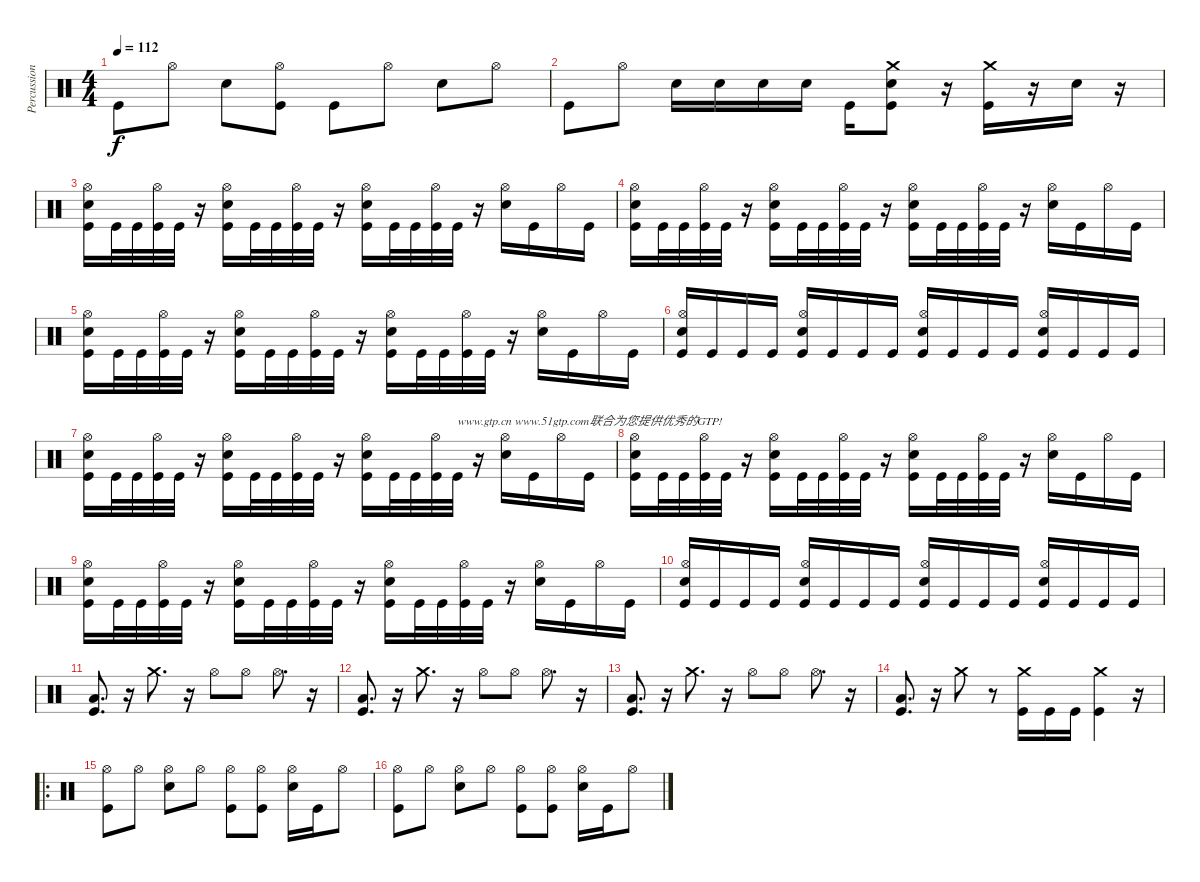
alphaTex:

\track ("Percussion" "Percussion") {instrument percussion}
\staff {score}
\articulation defaults
\ts (4 4)
\tempo 112
\clef neutral
\ks c "Kick (hit)".8{dy f} "Hi-Hat (open)".8 "Electric Snare (hit)".8
("Hi-Hat (open)" "Kick (hit)").8 "Kick (hit)".8 "Hi-Hat (open)".8 "Electric Snare (hit)".8 "Hi-Hat (open)".8 |
"Kick (hit)".8 "Hi-Hat (open)".8 "Electric Snare (hit)".16 "Electric Snare (hit)".16 "Electric Snare (hit)".16 "Electric Snare (hit)".16 "Kick (hit)".16 ("Electric Snare (hit)" "Kick (hit)" "Crash medium (hit)").8 r.16 ("Kick (hit)" "Crash medium (hit)").16 r.16 "Electric Snare (hit)".16 r.16 |
("Hi-Hat (open)" "Electric Snare (hit)" "Kick (hit)").16 "Kick (hit)".32 "Kick (hit)".32 ("Hi-Hat (open)" "Kick (hit)").32 "Kick (hit)".32 r.16 ("Hi-Hat (open)" "Electric Snare (hit)" "Kick (hit)").16 "Kick (hit)".32 "Kick (hit)".32 ("Hi-Hat (open)" "Kick (hit)").32 "Kick (hit)".32 r.16 ("Hi-Hat (open)" "Electric Snare (hit)" "Kick (hit)").16 "Kick (hit)".32 "Kick (hit)".32 ("Hi-Hat (open)" "Kick (hit)").32 "Kick (hit)".32 r.16 ("Hi-Hat (open)" "Electric Snare (hit)").16 "Kick (hit)".16 "Hi-Hat (open)".16 "Kick (hit)".16 |
("Hi-Hat (open)" "Electric Snare (hit)" "Kick (hit)").16 "Kick (hit)".32 "Kick (hit)".32 ("Hi-Hat (open)" "Kick (hit)").32 "Kick (hit)".32 r.16 ("Hi-Hat (open)" "Electric Snare (hit)" "Kick (hit)").16 "Kick (hit)".32 "Kick (hit)".32 ("Hi-Hat (open)" "Kick (hit)").32 "Kick (hit)".32 r.16 ("Hi-Hat (open)" "Electric Snare (hit)" "Kick (hit)").16 "Kick (hit)".32 "Kick (hit)".32 ("Hi-Hat (open)" "Kick (hit)").32 "Kick (hit)".32 r.16 ("Hi-Hat (open)" "Electric Snare (hit)").16 "Kick (hit)".16 "Hi-Hat (open)".16 "Kick (hit)".16 |
("Hi-Hat (open)" "Electric Snare (hit)" "Kick (hit)").16 "Kick (hit)".32 "Kick (hit)".32 ("Hi-Hat (open)" "Kick (hit)").32 "Kick (hit)".32 r.16 ("Hi-Hat (open)" "Electric Snare (hit)" "Kick (hit)").16 "Kick (hit)".32 "Kick (hit)".32 ("Hi-Hat (open)" "Kick (hit)").32 "Kick (hit)".32 r.16 ("Hi-Hat (open)" "Electric Snare (hit)" "Kick (hit)").16 "Kick (hit)".32 "Kick (hit)".32 ("Hi-Hat (open)" "Kick (hit)").32 "Kick (hit)".32 r.16 ("Hi-Hat (open)" "Electric Snare (hit)").16 "Kick (hit)".16 "Hi-Hat (open)".16 "Kick (hit)".16 |
("Hi-Hat (open)" "Electric Snare (hit)" "Kick (hit)").16 "Kick (hit)".16 "Kick (hit)".16 "Kick (hit)".16 ("Hi-Hat (open)" "Electric Snare (hit)" "Kick (hit)").16 "Kick (hit)".16 "Kick (hit)".16 "Kick (hit)".16 ("Hi-Hat (open)" "Electric Snare (hit)" "Kick (hit)").16 "Kick (hit)".16 "Kick (hit)".16 "Kick (hit)".16 ("Hi-Hat (open)" "Electric Snare (hit)" "Kick (hit)").16 "Kick (hit)".16 "Kick (hit)".16 "Kick (hit)".16 |
("Hi-Hat (open)" "Electric Snare (hit)" "Kick (hit)").16 "Kick (hit)".32 "Kick (hit)".32 ("Hi-Hat (open)" "Kick (hit)").32 "Kick (hit)".32 r.16 ("Hi-Hat (open)" "Electric Snare (hit)" "Kick (hit)").16 "Kick (hit)".32 "Kick (hit)".32 ("Hi-Hat (open)" "Kick (hit)").32 "Kick (hit)".32 r.16 ("Hi-Hat (open)" "Electric Snare (hit)" "Kick (hit)").16 "Kick (hit)".32 "Kick (hit)".32 ("Hi-Hat (open)" "Kick (hit)").32 "Kick (hit)".32{txt "www.gtp.cn www.51gtp.com联合为您提供优秀的GTP!"} r.16 ("Hi-Hat (open)" "Electric Snare (hit)").16 "Kick (hit)".16 "Hi-Hat (open)".16 "Kick (hit)".16 |
("Hi-Hat (open)" "Electric Snare (hit)" "Kick (hit)").16 "Kick (hit)".32 "Kick (hit)".32 ("Hi-Hat (open)" "Kick (hit)").32 "Kick (hit)".32 r.16 ("Hi-Hat (open)" "Electric Snare (hit)" "Kick (hit)").16 "Kick (hit)".32 "Kick (hit)".32 ("Hi-Hat (open)" "Kick (hit)").32 "Kick (hit)".32 r.16 ("Hi-Hat (open)" "Electric Snare (hit)" "Kick (hit)").16 "Kick (hit)".32 "Kick (hit)".32 ("Hi-Hat (open)" "Kick (hit)").32 "Kick (hit)".32 r.16 ("Hi-Hat (open)" "Electric Snare (hit)").16 "Kick (hit)".16 "Hi-Hat (open)".16 "Kick (hit)".16 |
("Hi-Hat (open)" "Electric Snare (hit)" "Kick (hit)").16 "Kick (hit)".32 "Kick (hit)".32 ("Hi-Hat (open)" "Kick (hit)").32 "Kick (hit)".32 r.16 ("Hi-Hat (open)" "Electric Snare (hit)" "Kick (hit)").16 "Kick (hit)".32 "Kick (hit)".32 ("Hi-Hat (open)" "Kick (hit)").32 "Kick (hit)".32 r.16 ("Hi-Hat (open)" "Electric Snare (hit)" "Kick (hit)").16 "Kick (hit)".32 "Kick (hit)".32 ("Hi-Hat (open)" "Kick (hit)").32 "Kick (hit)".32 r.16 ("Hi-Hat (open)" "Electric Snare (hit)").16 "Kick (hit)".16 "Hi-Hat (open)".16 "Kick (hit)".16 |
("Hi-Hat (open)" "Electric Snare (hit)" "Kick (hit)").16 "Kick (hit)".16 "Kick (hit)".16 "Kick (hit)".16 ("Hi-Hat (open)" "Electric Snare (hit)" "Kick (hit)").16 "Kick (hit)".16 "Kick (hit)".16 "Kick (hit)".16 ("Hi-Hat (open)" "Electric Snare (hit)" "Kick (hit)").16 "Kick (hit)".16 "Kick (hit)".16 "Kick (hit)".16 ("Hi-Hat (open)" "Electric Snare (hit)" "Kick (hit)").16 "Kick (hit)".16 "Kick (hit)".16 "Kick (hit)".16 |
("Kick (hit)" "Low Floor Tom (hit)").8{d} r.16 "Crash medium (hit)".8{d} r.16 "Hi-Hat (open)".8 "Hi-Hat (open)".8 "Hi-Hat (open)".8{d} r.16 |
("Kick (hit)" "Low Floor Tom (hit)").8{d} r.16 "Crash medium (hit)".8{d} r.16 "Hi-Hat (open)".8 "Hi-Hat (open)".8 "Hi-Hat (open)".8{d} r.16 |
("Kick (hit)" "Low Floor Tom (hit)").8{d} r.16 "Crash medium (hit)".8{d} r.16 "Hi-Hat (open)".8 "Hi-Hat (open)".8 "Hi-Hat (open)".8{d} r.16 |
("Kick (hit)" "Low Floor Tom (hit)").8{d} r.16 "Crash medium (hit)".8 r.8 ("Kick (hit)" "Crash medium (hit)").16 "Kick (hit)".16 "Kick (hit)".16 ("Kick (hit)" "Crash medium (hit)").4 r.16 |
\ro
("Hi-Hat (open)" "Kick (hit)").8 "Hi-Hat (open)".8 ("Hi-Hat (open)" "Electric Snare (hit)").8 "Hi-Hat (open)".8 ("Hi-Hat (open)" "Kick (hit)").8 ("Hi-Hat (open)" "Kick (hit)").8 ("Hi-Hat (open)" "Electric Snare (hit)").16 "Kick (hit)".16 "Hi-Hat (open)".8 |
("Hi-Hat (open)" "Kick (hit)").8 "Hi-Hat (open)".8 ("Hi-Hat (open)" "Electric Snare (hit)").8 "Hi-Hat (open)".8 ("Hi-Hat (open)" "Kick (hit)").8 ("Hi-Hat (open)" "Kick (hit)").8 ("Hi-Hat (open)" "Electric Snare (hit)").16 "Kick (hit)".16 "Hi-Hat (open)".8
